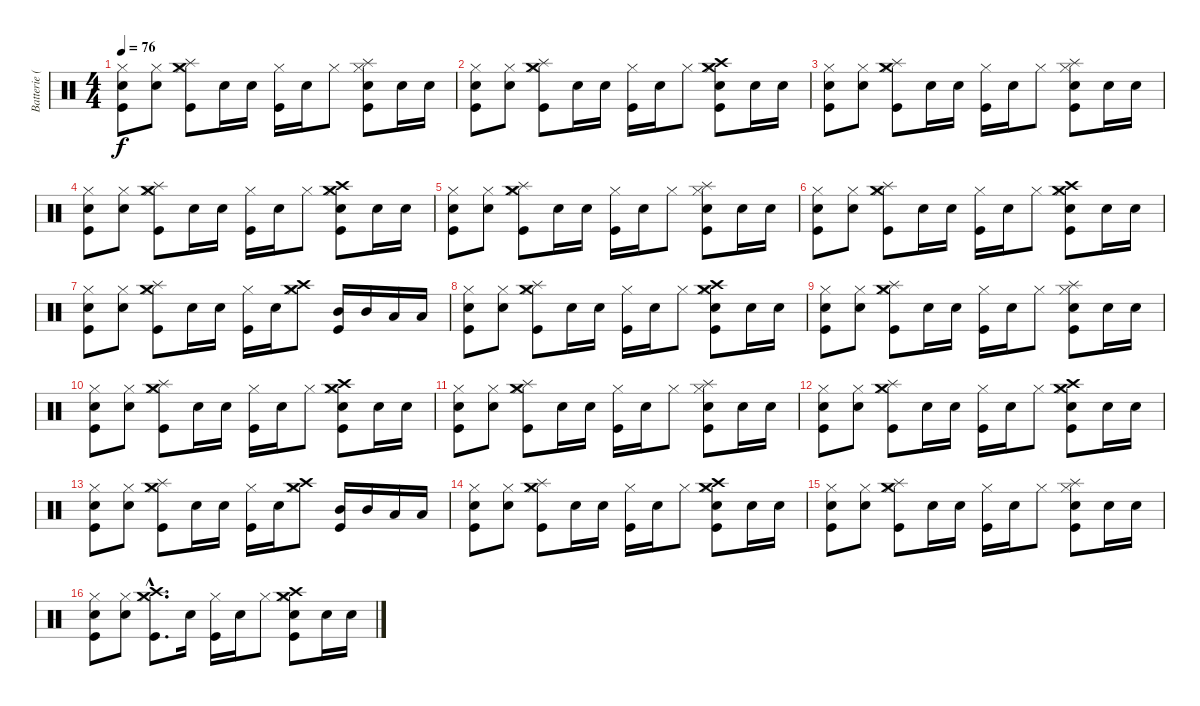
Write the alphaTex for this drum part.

\track ("Batterie (Caroline Corr)" "Batterie (") {instrument percussion}
\staff {score}
\articulation defaults
\ts (4 4)
\tempo 76
\clef neutral
\ks c
("Hi-Hat (closed)" "Snare (hit) 2" "Kick (hit)").8{dy f} ("Hi-Hat (closed)" "Snare (hit) 2").8 ("Hi-Hat (closed)" "Splash (hit)" "Crash medium (hit)" "Kick (hit)").8 "Snare (hit) 2".16 "Snare (hit) 2".16 ("Hi-Hat (closed)" "Kick (hit)").16 "Snare (hit) 2".16 "Hi-Hat (closed)".8 ("Hi-Hat (closed)" "Snare (hit) 2" "Splash (hit)" "Kick (hit)").8 "Snare (hit) 2".16 "Snare (hit) 2".16 |
("Hi-Hat (closed)" "Snare (hit) 2" "Kick (hit)").8 ("Hi-Hat (closed)" "Snare (hit) 2").8 ("Hi-Hat (closed)" "Splash (hit)" "Crash medium (hit)" "Kick (hit)").8 "Snare (hit) 2".16 "Snare (hit) 2".16 ("Hi-Hat (closed)" "Kick (hit)").16 "Snare (hit) 2".16 "Hi-Hat (closed)".8 ("Hi-Hat (closed)" "Snare (hit) 2" "Crash high (hit)" "Crash medium (hit)" "Kick (hit)").8 "Snare (hit) 2".16 "Snare (hit) 2".16 |
("Hi-Hat (closed)" "Snare (hit) 2" "Kick (hit)").8 ("Hi-Hat (closed)" "Snare (hit) 2").8 ("Hi-Hat (closed)" "Splash (hit)" "Crash medium (hit)" "Kick (hit)").8 "Snare (hit) 2".16 "Snare (hit) 2".16 ("Hi-Hat (closed)" "Kick (hit)").16 "Snare (hit) 2".16 "Hi-Hat (closed)".8 ("Hi-Hat (closed)" "Snare (hit) 2" "Splash (hit)" "Kick (hit)").8 "Snare (hit) 2".16 "Snare (hit) 2".16 |
("Hi-Hat (closed)" "Snare (hit) 2" "Kick (hit)").8 ("Hi-Hat (closed)" "Snare (hit) 2").8 ("Hi-Hat (closed)" "Splash (hit)" "Crash medium (hit)" "Kick (hit)").8 "Snare (hit) 2".16 "Snare (hit) 2".16 ("Hi-Hat (closed)" "Kick (hit)").16 "Snare (hit) 2".16 "Hi-Hat (closed)".8 ("Hi-Hat (closed)" "Snare (hit) 2" "Crash high (hit)" "Crash medium (hit)" "Kick (hit)").8 "Snare (hit) 2".16 "Snare (hit) 2".16 |
("Hi-Hat (closed)" "Snare (hit) 2" "Kick (hit)").8 ("Hi-Hat (closed)" "Snare (hit) 2").8 ("Hi-Hat (closed)" "Splash (hit)" "Crash medium (hit)" "Kick (hit)").8 "Snare (hit) 2".16 "Snare (hit) 2".16 ("Hi-Hat (closed)" "Kick (hit)").16 "Snare (hit) 2".16 "Hi-Hat (closed)".8 ("Hi-Hat (closed)" "Snare (hit) 2" "Splash (hit)" "Kick (hit)").8 "Snare (hit) 2".16 "Snare (hit) 2".16 |
("Hi-Hat (closed)" "Snare (hit) 2" "Kick (hit)").8 ("Hi-Hat (closed)" "Snare (hit) 2").8 ("Hi-Hat (closed)" "Splash (hit)" "Crash medium (hit)" "Kick (hit)").8 "Snare (hit) 2".16 "Snare (hit) 2".16 ("Hi-Hat (closed)" "Kick (hit)").16 "Snare (hit) 2".16 "Hi-Hat (closed)".8 ("Hi-Hat (closed)" "Snare (hit) 2" "Crash high (hit)" "Crash medium (hit)" "Kick (hit)").8 "Snare (hit) 2".16 "Snare (hit) 2".16 |
("Hi-Hat (closed)" "Snare (hit) 2" "Kick (hit)").8 ("Hi-Hat (closed)" "Snare (hit) 2").8 ("Hi-Hat (closed)" "Splash (hit)" "Crash medium (hit)" "Kick (hit)").8 "Snare (hit) 2".16 "Snare (hit) 2".16 ("Hi-Hat (closed)" "Kick (hit)").16 "Snare (hit) 2".16 ("Hi-Hat (closed)" "Crash medium (hit)" "Crash high (hit)").8 ("Mid Tom (hit)" "Kick (hit)").16 "Mid Tom (hit)".16 "Low Tom (hit)".16 "Low Tom (hit)".16 |
("Hi-Hat (closed)" "Snare (hit) 2" "Kick (hit)").8 ("Hi-Hat (closed)" "Snare (hit) 2").8 ("Hi-Hat (closed)" "Splash (hit)" "Crash medium (hit)" "Kick (hit)").8 "Snare (hit) 2".16 "Snare (hit) 2".16 ("Hi-Hat (closed)" "Kick (hit)").16 "Snare (hit) 2".16 "Hi-Hat (closed)".8 ("Hi-Hat (closed)" "Snare (hit) 2" "Crash high (hit)" "Crash medium (hit)" "Kick (hit)").8 "Snare (hit) 2".16 "Snare (hit) 2".16 |
("Hi-Hat (closed)" "Snare (hit) 2" "Kick (hit)").8 ("Hi-Hat (closed)" "Snare (hit) 2").8 ("Hi-Hat (closed)" "Splash (hit)" "Crash medium (hit)" "Kick (hit)").8 "Snare (hit) 2".16 "Snare (hit) 2".16 ("Hi-Hat (closed)" "Kick (hit)").16 "Snare (hit) 2".16 "Hi-Hat (closed)".8 ("Hi-Hat (closed)" "Snare (hit) 2" "Splash (hit)" "Kick (hit)").8 "Snare (hit) 2".16 "Snare (hit) 2".16 |
("Hi-Hat (closed)" "Snare (hit) 2" "Kick (hit)").8 ("Hi-Hat (closed)" "Snare (hit) 2").8 ("Hi-Hat (closed)" "Splash (hit)" "Crash medium (hit)" "Kick (hit)").8 "Snare (hit) 2".16 "Snare (hit) 2".16 ("Hi-Hat (closed)" "Kick (hit)").16 "Snare (hit) 2".16 "Hi-Hat (closed)".8 ("Hi-Hat (closed)" "Snare (hit) 2" "Crash high (hit)" "Crash medium (hit)" "Kick (hit)").8 "Snare (hit) 2".16 "Snare (hit) 2".16 |
("Hi-Hat (closed)" "Snare (hit) 2" "Kick (hit)").8 ("Hi-Hat (closed)" "Snare (hit) 2").8 ("Hi-Hat (closed)" "Splash (hit)" "Crash medium (hit)" "Kick (hit)").8 "Snare (hit) 2".16 "Snare (hit) 2".16 ("Hi-Hat (closed)" "Kick (hit)").16 "Snare (hit) 2".16 "Hi-Hat (closed)".8 ("Hi-Hat (closed)" "Snare (hit) 2" "Splash (hit)" "Kick (hit)").8 "Snare (hit) 2".16 "Snare (hit) 2".16 |
("Hi-Hat (closed)" "Snare (hit) 2" "Kick (hit)").8 ("Hi-Hat (closed)" "Snare (hit) 2").8 ("Hi-Hat (closed)" "Splash (hit)" "Crash medium (hit)" "Kick (hit)").8 "Snare (hit) 2".16 "Snare (hit) 2".16 ("Hi-Hat (closed)" "Kick (hit)").16 "Snare (hit) 2".16 "Hi-Hat (closed)".8 ("Hi-Hat (closed)" "Snare (hit) 2" "Crash high (hit)" "Crash medium (hit)" "Kick (hit)").8 "Snare (hit) 2".16 "Snare (hit) 2".16 |
("Hi-Hat (closed)" "Snare (hit) 2" "Kick (hit)").8 ("Hi-Hat (closed)" "Snare (hit) 2").8 ("Hi-Hat (closed)" "Splash (hit)" "Crash medium (hit)" "Kick (hit)").8 "Snare (hit) 2".16 "Snare (hit) 2".16 ("Hi-Hat (closed)" "Kick (hit)").16 "Snare (hit) 2".16 ("Hi-Hat (closed)" "Crash medium (hit)" "Crash high (hit)").8 ("Mid Tom (hit)" "Kick (hit)").16 "Mid Tom (hit)".16 "Low Tom (hit)".16 "Low Tom (hit)".16 |
("Hi-Hat (closed)" "Snare (hit) 2" "Kick (hit)").8 ("Hi-Hat (closed)" "Snare (hit) 2").8 ("Hi-Hat (closed)" "Splash (hit)" "Crash medium (hit)" "Kick (hit)").8 "Snare (hit) 2".16 "Snare (hit) 2".16 ("Hi-Hat (closed)" "Kick (hit)").16 "Snare (hit) 2".16 "Hi-Hat (closed)".8 ("Hi-Hat (closed)" "Snare (hit) 2" "Crash high (hit)" "Crash medium (hit)" "Kick (hit)").8 "Snare (hit) 2".16 "Snare (hit) 2".16 |
("Hi-Hat (closed)" "Snare (hit) 2" "Kick (hit)").8 ("Hi-Hat (closed)" "Snare (hit) 2").8 ("Hi-Hat (closed)" "Splash (hit)" "Crash medium (hit)" "Kick (hit)").8 "Snare (hit) 2".16 "Snare (hit) 2".16 ("Hi-Hat (closed)" "Kick (hit)").16 "Snare (hit) 2".16 "Hi-Hat (closed)".8 ("Hi-Hat (closed)" "Snare (hit) 2" "Splash (hit)" "Kick (hit)").8 "Snare (hit) 2".16 "Snare (hit) 2".16 |
("Hi-Hat (closed)" "Snare (hit) 2" "Kick (hit)").8 ("Hi-Hat (closed)" "Snare (hit) 2").8 ("Hi-Hat (closed)"{hac} "Crash high (hit)"{hac} "Crash medium (hit)"{hac} "Kick (hit)"{hac}).8{d} "Snare (hit) 2".16 ("Hi-Hat (closed)" "Kick (hit)").16 "Snare (hit) 2".16 "Hi-Hat (closed)".8 ("Hi-Hat (closed)" "Snare (hit) 2" "Crash high (hit)" "Crash medium (hit)" "Kick (hit)").8 "Snare (hit) 2".16 "Snare (hit) 2".16
